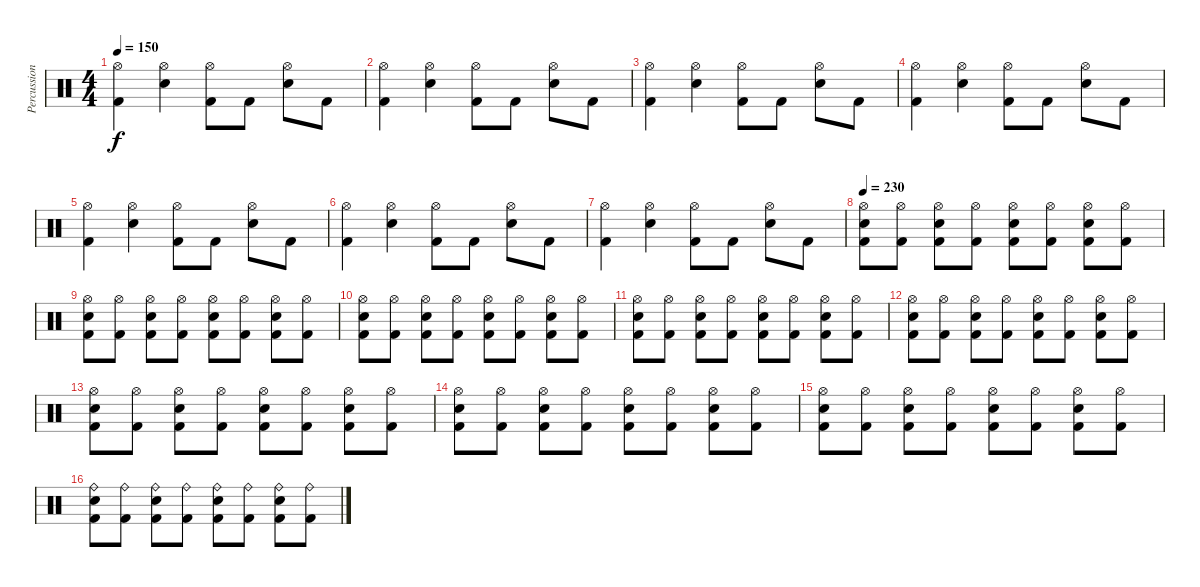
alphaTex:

\track ("Percussions" "Percussion") {instrument percussion}
\staff {score}
\articulation defaults
\ts (4 4)
\tempo 150
\clef neutral
\ks c
("Kick (hit) 2" "Hi-Hat (open)").4{dy f} ("Snare (hit) 2" "Hi-Hat (open)").4 ("Kick (hit) 2" "Hi-Hat (open)").8 "Kick (hit) 2".8 ("Snare (hit) 2" "Hi-Hat (open)").8 "Kick (hit) 2".8 |
("Kick (hit) 2" "Hi-Hat (open)").4 ("Snare (hit) 2" "Hi-Hat (open)").4 ("Kick (hit) 2" "Hi-Hat (open)").8 "Kick (hit) 2".8 ("Snare (hit) 2" "Hi-Hat (open)").8 "Kick (hit) 2".8 |
("Kick (hit) 2" "Hi-Hat (open)").4 ("Snare (hit) 2" "Hi-Hat (open)").4 ("Kick (hit) 2" "Hi-Hat (open)").8 "Kick (hit) 2".8 ("Snare (hit) 2" "Hi-Hat (open)").8 "Kick (hit) 2".8 |
("Kick (hit) 2" "Hi-Hat (open)").4 ("Snare (hit) 2" "Hi-Hat (open)").4 ("Kick (hit) 2" "Hi-Hat (open)").8 "Kick (hit) 2".8 ("Snare (hit) 2" "Hi-Hat (open)").8 "Kick (hit) 2".8 |
("Kick (hit) 2" "Hi-Hat (open)").4 ("Snare (hit) 2" "Hi-Hat (open)").4 ("Kick (hit) 2" "Hi-Hat (open)").8 "Kick (hit) 2".8 ("Snare (hit) 2" "Hi-Hat (open)").8 "Kick (hit) 2".8 |
("Kick (hit) 2" "Hi-Hat (open)").4 ("Snare (hit) 2" "Hi-Hat (open)").4 ("Kick (hit) 2" "Hi-Hat (open)").8 "Kick (hit) 2".8 ("Snare (hit) 2" "Hi-Hat (open)").8 "Kick (hit) 2".8 |
("Kick (hit) 2" "Hi-Hat (open)").4 ("Snare (hit) 2" "Hi-Hat (open)").4 ("Kick (hit) 2" "Hi-Hat (open)").8 "Kick (hit) 2".8 ("Snare (hit) 2" "Hi-Hat (open)").8 "Kick (hit) 2".8 |
\tempo 230
("Kick (hit) 2" "Snare (hit) 2" "Hi-Hat (open)").8 ("Kick (hit) 2" "Hi-Hat (open)").8 ("Kick (hit) 2" "Snare (hit) 2" "Hi-Hat (open)").8 ("Kick (hit) 2" "Hi-Hat (open)").8 ("Kick (hit) 2" "Snare (hit) 2" "Hi-Hat (open)").8 ("Kick (hit) 2" "Hi-Hat (open)").8 ("Kick (hit) 2" "Snare (hit) 2" "Hi-Hat (open)").8 ("Kick (hit) 2" "Hi-Hat (open)").8 |
("Kick (hit) 2" "Snare (hit) 2" "Hi-Hat (open)").8 ("Kick (hit) 2" "Hi-Hat (open)").8 ("Kick (hit) 2" "Snare (hit) 2" "Hi-Hat (open)").8 ("Kick (hit) 2" "Hi-Hat (open)").8 ("Kick (hit) 2" "Snare (hit) 2" "Hi-Hat (open)").8 ("Kick (hit) 2" "Hi-Hat (open)").8 ("Kick (hit) 2" "Snare (hit) 2" "Hi-Hat (open)").8 ("Kick (hit) 2" "Hi-Hat (open)").8 |
("Kick (hit) 2" "Snare (hit) 2" "Hi-Hat (open)").8 ("Kick (hit) 2" "Hi-Hat (open)").8 ("Kick (hit) 2" "Snare (hit) 2" "Hi-Hat (open)").8 ("Kick (hit) 2" "Hi-Hat (open)").8 ("Kick (hit) 2" "Snare (hit) 2" "Hi-Hat (open)").8 ("Kick (hit) 2" "Hi-Hat (open)").8 ("Kick (hit) 2" "Snare (hit) 2" "Hi-Hat (open)").8 ("Kick (hit) 2" "Hi-Hat (open)").8 |
("Kick (hit) 2" "Snare (hit) 2" "Hi-Hat (open)").8 ("Kick (hit) 2" "Hi-Hat (open)").8 ("Kick (hit) 2" "Snare (hit) 2" "Hi-Hat (open)").8 ("Kick (hit) 2" "Hi-Hat (open)").8 ("Kick (hit) 2" "Snare (hit) 2" "Hi-Hat (open)").8 ("Kick (hit) 2" "Hi-Hat (open)").8 ("Kick (hit) 2" "Snare (hit) 2" "Hi-Hat (open)").8 ("Kick (hit) 2" "Hi-Hat (open)").8 |
("Kick (hit) 2" "Snare (hit) 2" "Hi-Hat (open)").8 ("Kick (hit) 2" "Hi-Hat (open)").8 ("Kick (hit) 2" "Snare (hit) 2" "Hi-Hat (open)").8 ("Kick (hit) 2" "Hi-Hat (open)").8 ("Kick (hit) 2" "Snare (hit) 2" "Hi-Hat (open)").8 ("Kick (hit) 2" "Hi-Hat (open)").8 ("Kick (hit) 2" "Snare (hit) 2" "Hi-Hat (open)").8 ("Kick (hit) 2" "Hi-Hat (open)").8 |
("Kick (hit) 2" "Snare (hit) 2" "Hi-Hat (open)").8 ("Kick (hit) 2" "Hi-Hat (open)").8 ("Kick (hit) 2" "Snare (hit) 2" "Hi-Hat (open)").8 ("Kick (hit) 2" "Hi-Hat (open)").8 ("Kick (hit) 2" "Snare (hit) 2" "Hi-Hat (open)").8 ("Kick (hit) 2" "Hi-Hat (open)").8 ("Kick (hit) 2" "Snare (hit) 2" "Hi-Hat (open)").8 ("Kick (hit) 2" "Hi-Hat (open)").8 |
("Kick (hit) 2" "Snare (hit) 2" "Hi-Hat (open)").8 ("Kick (hit) 2" "Hi-Hat (open)").8 ("Kick (hit) 2" "Snare (hit) 2" "Hi-Hat (open)").8 ("Kick (hit) 2" "Hi-Hat (open)").8 ("Kick (hit) 2" "Snare (hit) 2" "Hi-Hat (open)").8 ("Kick (hit) 2" "Hi-Hat (open)").8 ("Kick (hit) 2" "Snare (hit) 2" "Hi-Hat (open)").8 ("Kick (hit) 2" "Hi-Hat (open)").8 |
("Kick (hit) 2" "Snare (hit) 2" "Hi-Hat (open)").8 ("Kick (hit) 2" "Hi-Hat (open)").8 ("Kick (hit) 2" "Snare (hit) 2" "Hi-Hat (open)").8 ("Kick (hit) 2" "Hi-Hat (open)").8 ("Kick (hit) 2" "Snare (hit) 2" "Hi-Hat (open)").8 ("Kick (hit) 2" "Hi-Hat (open)").8 ("Kick (hit) 2" "Snare (hit) 2" "Hi-Hat (open)").8 ("Kick (hit) 2" "Hi-Hat (open)").8 |
("Kick (hit) 2" "Snare (hit) 2" "Ride (bell)").8 ("Kick (hit) 2" "Ride (bell)").8 ("Kick (hit) 2" "Snare (hit) 2" "Ride (bell)").8 ("Kick (hit) 2" "Ride (bell)").8 ("Kick (hit) 2" "Snare (hit) 2" "Ride (bell)").8 ("Kick (hit) 2" "Ride (bell)").8 ("Kick (hit) 2" "Snare (hit) 2" "Ride (bell)").8 ("Kick (hit) 2" "Ride (bell)").8
